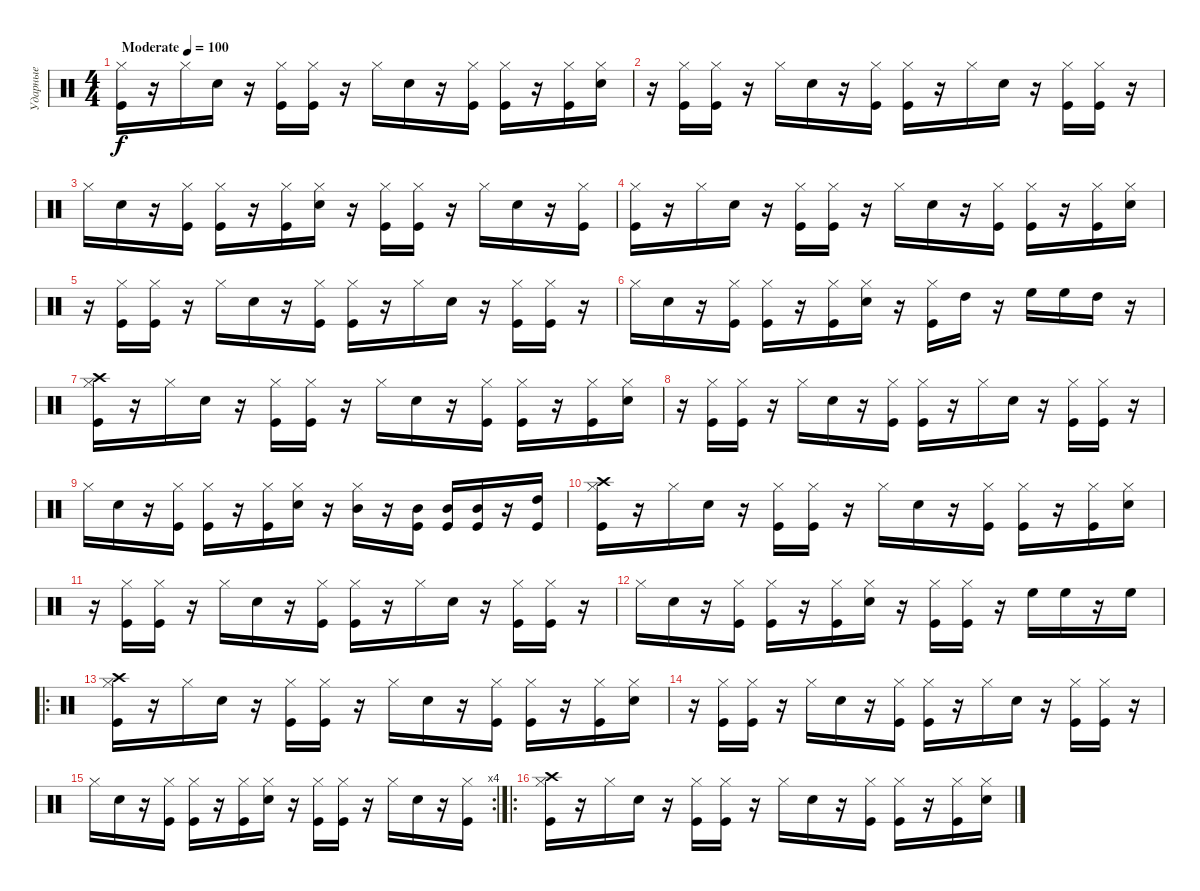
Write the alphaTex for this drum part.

\track ("Ударные" "Ударные") {instrument percussion}
\staff {score}
\articulation defaults
\ts (4 4)
\tempo (100 "Moderate")
\clef neutral
\ks c
("Hi-Hat (closed)" "Kick (hit)").16{dy f} r.16 "Hi-Hat (closed)".16 "Electric Snare (hit)".16 r.16 ("Kick (hit)" "Hi-Hat (closed)").16 ("Kick (hit)" "Hi-Hat (closed)").16 r.16 "Hi-Hat (closed)".16 "Electric Snare (hit)".16 r.16 ("Kick (hit)" "Hi-Hat (closed)").16 ("Kick (hit)" "Hi-Hat (closed)").16 r.16 ("Kick (hit)" "Hi-Hat (closed)").16 ("Electric Snare (hit)" "Hi-Hat (closed)").16 |
r.16 ("Kick (hit)" "Hi-Hat (closed)").16 ("Kick (hit)" "Hi-Hat (closed)").16 r.16 "Hi-Hat (closed)".16 "Electric Snare (hit)".16 r.16 ("Kick (hit)" "Hi-Hat (closed)").16 ("Kick (hit)" "Hi-Hat (closed)").16 r.16 "Hi-Hat (closed)".16 "Electric Snare (hit)".16 r.16 ("Kick (hit)" "Hi-Hat (closed)").16 ("Kick (hit)" "Hi-Hat (closed)").16 r.16 |
"Hi-Hat (closed)".16 "Electric Snare (hit)".16 r.16 ("Kick (hit)" "Hi-Hat (closed)").16 ("Kick (hit)" "Hi-Hat (closed)").16 r.16 ("Kick (hit)" "Hi-Hat (closed)").16 ("Electric Snare (hit)" "Hi-Hat (closed)").16 r.16 ("Kick (hit)" "Hi-Hat (closed)").16 ("Kick (hit)" "Hi-Hat (closed)").16 r.16 "Hi-Hat (closed)".16 "Electric Snare (hit)".16 r.16 ("Kick (hit)" "Hi-Hat (closed)").16 |
("Hi-Hat (closed)" "Kick (hit)").16 r.16 "Hi-Hat (closed)".16 "Electric Snare (hit)".16 r.16 ("Kick (hit)" "Hi-Hat (closed)").16 ("Kick (hit)" "Hi-Hat (closed)").16 r.16 "Hi-Hat (closed)".16 "Electric Snare (hit)".16 r.16 ("Kick (hit)" "Hi-Hat (closed)").16 ("Kick (hit)" "Hi-Hat (closed)").16 r.16 ("Kick (hit)" "Hi-Hat (closed)").16 ("Electric Snare (hit)" "Hi-Hat (closed)").16 |
r.16 ("Kick (hit)" "Hi-Hat (closed)").16 ("Kick (hit)" "Hi-Hat (closed)").16 r.16 "Hi-Hat (closed)".16 "Electric Snare (hit)".16 r.16 ("Kick (hit)" "Hi-Hat (closed)").16 ("Kick (hit)" "Hi-Hat (closed)").16 r.16 "Hi-Hat (closed)".16 "Electric Snare (hit)".16 r.16 ("Kick (hit)" "Hi-Hat (closed)").16 ("Kick (hit)" "Hi-Hat (closed)").16 r.16 |
"Hi-Hat (closed)".16 "Electric Snare (hit)".16 r.16 ("Kick (hit)" "Hi-Hat (closed)").16 ("Kick (hit)" "Hi-Hat (closed)").16 r.16 ("Kick (hit)" "Hi-Hat (closed)").16 ("Electric Snare (hit)" "Hi-Hat (closed)").16 r.16 ("Kick (hit)" "Hi-Hat (closed)").16 "High Tom (hit)".16 r.16 "High Floor Tom (hit)".16 "High Floor Tom (hit)".16 "High Tom (hit)".16 r.16 |
("Hi-Hat (closed)" "Kick (hit)" "Crash high (hit)").16 r.16 "Hi-Hat (closed)".16 "Electric Snare (hit)".16 r.16 ("Kick (hit)" "Hi-Hat (closed)").16 ("Kick (hit)" "Hi-Hat (closed)").16 r.16 "Hi-Hat (closed)".16 "Electric Snare (hit)".16 r.16 ("Kick (hit)" "Hi-Hat (closed)").16 ("Kick (hit)" "Hi-Hat (closed)").16 r.16 ("Kick (hit)" "Hi-Hat (closed)").16 ("Electric Snare (hit)" "Hi-Hat (closed)").16 |
r.16 ("Kick (hit)" "Hi-Hat (closed)").16 ("Kick (hit)" "Hi-Hat (closed)").16 r.16 "Hi-Hat (closed)".16 "Electric Snare (hit)".16 r.16 ("Kick (hit)" "Hi-Hat (closed)").16 ("Kick (hit)" "Hi-Hat (closed)").16 r.16 "Hi-Hat (closed)".16 "Electric Snare (hit)".16 r.16 ("Kick (hit)" "Hi-Hat (closed)").16 ("Kick (hit)" "Hi-Hat (closed)").16 r.16 |
"Hi-Hat (closed)".16 "Electric Snare (hit)".16 r.16 ("Kick (hit)" "Hi-Hat (closed)").16 ("Kick (hit)" "Hi-Hat (closed)").16 r.16 ("Kick (hit)" "Hi-Hat (closed)").16 ("Electric Snare (hit)" "Hi-Hat (closed)").16 r.16 ("Mid Tom (hit)" "Hi-Hat (closed)").16 r.16 ("Mid Tom (hit)" "Kick (hit)").16 ("Mid Tom (hit)" "Kick (hit)").16 ("Mid Tom (hit)" "Kick (hit)").16 r.16 ("High Tom (hit)" "Kick (hit)").16 |
("Hi-Hat (closed)" "Kick (hit)" "Crash high (hit)").16 r.16 "Hi-Hat (closed)".16 "Electric Snare (hit)".16 r.16 ("Kick (hit)" "Hi-Hat (closed)").16 ("Kick (hit)" "Hi-Hat (closed)").16 r.16 "Hi-Hat (closed)".16 "Electric Snare (hit)".16 r.16 ("Kick (hit)" "Hi-Hat (closed)").16 ("Kick (hit)" "Hi-Hat (closed)").16 r.16 ("Kick (hit)" "Hi-Hat (closed)").16 ("Electric Snare (hit)" "Hi-Hat (closed)").16 |
r.16 ("Kick (hit)" "Hi-Hat (closed)").16 ("Kick (hit)" "Hi-Hat (closed)").16 r.16 "Hi-Hat (closed)".16 "Electric Snare (hit)".16 r.16 ("Kick (hit)" "Hi-Hat (closed)").16 ("Kick (hit)" "Hi-Hat (closed)").16 r.16 "Hi-Hat (closed)".16 "Electric Snare (hit)".16 r.16 ("Kick (hit)" "Hi-Hat (closed)").16 ("Kick (hit)" "Hi-Hat (closed)").16 r.16 |
"Hi-Hat (closed)".16 "Electric Snare (hit)".16 r.16 ("Kick (hit)" "Hi-Hat (closed)").16 ("Kick (hit)" "Hi-Hat (closed)").16 r.16 ("Kick (hit)" "Hi-Hat (closed)").16 ("Electric Snare (hit)" "Hi-Hat (closed)").16 r.16 ("Kick (hit)" "Hi-Hat (closed)").16 ("Kick (hit)" "Hi-Hat (closed)").16 r.16 "High Floor Tom (hit)".16 "High Floor Tom (hit)".16 r.16 "High Floor Tom (hit)".16 |
\ro
("Hi-Hat (closed)" "Kick (hit)" "Crash high (hit)").16 r.16 "Hi-Hat (closed)".16 "Electric Snare (hit)".16 r.16 ("Kick (hit)" "Hi-Hat (closed)").16 ("Kick (hit)" "Hi-Hat (closed)").16 r.16 "Hi-Hat (closed)".16 "Electric Snare (hit)".16 r.16 ("Kick (hit)" "Hi-Hat (closed)").16 ("Kick (hit)" "Hi-Hat (closed)").16 r.16 ("Kick (hit)" "Hi-Hat (closed)").16 ("Electric Snare (hit)" "Hi-Hat (closed)").16 |
r.16 ("Kick (hit)" "Hi-Hat (closed)").16 ("Kick (hit)" "Hi-Hat (closed)").16 r.16 "Hi-Hat (closed)".16 "Electric Snare (hit)".16 r.16 ("Kick (hit)" "Hi-Hat (closed)").16 ("Kick (hit)" "Hi-Hat (closed)").16 r.16 "Hi-Hat (closed)".16 "Electric Snare (hit)".16 r.16 ("Kick (hit)" "Hi-Hat (closed)").16 ("Kick (hit)" "Hi-Hat (closed)").16 r.16 |
\rc 4 "Hi-Hat (closed)".16 "Electric Snare (hit)".16
r.16 ("Kick (hit)" "Hi-Hat (closed)").16 ("Kick (hit)" "Hi-Hat (closed)").16 r.16 ("Kick (hit)" "Hi-Hat (closed)").16 ("Electric Snare (hit)" "Hi-Hat (closed)").16 r.16 ("Kick (hit)" "Hi-Hat (closed)").16 ("Kick (hit)" "Hi-Hat (closed)").16 r.16 "Hi-Hat (closed)".16 "Electric Snare (hit)".16 r.16 ("Kick (hit)" "Hi-Hat (closed)").16 |
\ro
("Hi-Hat (closed)" "Kick (hit)" "Crash high (hit)").16 r.16 "Hi-Hat (closed)".16 "Electric Snare (hit)".16 r.16 ("Kick (hit)" "Hi-Hat (closed)").16 ("Kick (hit)" "Hi-Hat (closed)").16 r.16 "Hi-Hat (closed)".16 "Electric Snare (hit)".16 r.16 ("Kick (hit)" "Hi-Hat (closed)").16 ("Kick (hit)" "Hi-Hat (closed)").16 r.16 ("Kick (hit)" "Hi-Hat (closed)").16 ("Electric Snare (hit)" "Hi-Hat (closed)").16
